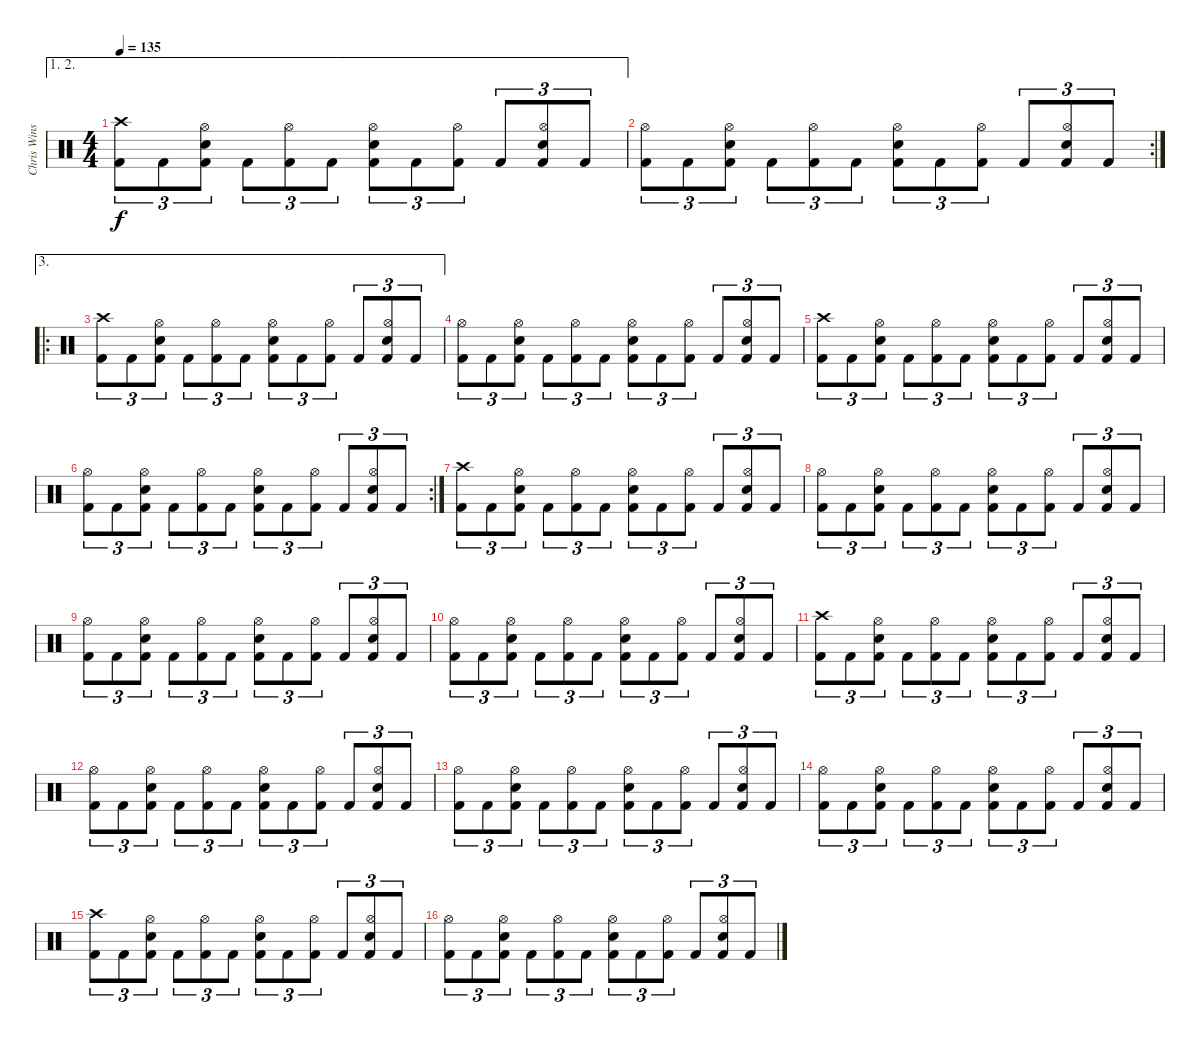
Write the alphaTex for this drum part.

\track ("Chris Winship (Drums)" "Chris Wins") {instrument percussion}
\staff {score}
\articulation defaults
\ae (1 2)
\ts (4 4)
\tempo 135
\clef neutral
\ks c
("Crash high (hit)" "Kick (hit) 2").8{tu (3 2) dy f} "Kick (hit) 2".8{tu (3 2)} ("Hi-Hat (open)" "Electric Snare (hit)" "Kick (hit) 2").8{tu (3 2)} "Kick (hit) 2".8{tu (3 2)} ("Hi-Hat (open)" "Kick (hit) 2").8{tu (3 2)} "Kick (hit) 2".8{tu (3 2)} ("Hi-Hat (open)" "Electric Snare (hit)" "Kick (hit) 2").8{tu (3 2)} "Kick (hit) 2".8{tu (3 2)} ("Hi-Hat (open)" "Kick (hit) 2").8{tu (3 2)} "Kick (hit) 2".8{tu (3 2)} ("Hi-Hat (open)" "Electric Snare (hit)" "Kick (hit) 2").8{tu (3 2)} "Kick (hit) 2".8{tu (3 2)} |
\rc 2
("Hi-Hat (open)" "Kick (hit) 2").8{tu (3 2)} "Kick (hit) 2".8{tu (3 2)} ("Hi-Hat (open)" "Electric Snare (hit)" "Kick (hit) 2").8{tu (3 2)} "Kick (hit) 2".8{tu (3 2)} ("Hi-Hat (open)" "Kick (hit) 2").8{tu (3 2)} "Kick (hit) 2".8{tu (3 2)} ("Hi-Hat (open)" "Electric Snare (hit)" "Kick (hit) 2").8{tu (3 2)} "Kick (hit) 2".8{tu (3 2)} ("Hi-Hat (open)" "Kick (hit) 2").8{tu (3 2)} "Kick (hit) 2".8{tu (3 2)} ("Hi-Hat (open)" "Electric Snare (hit)" "Kick (hit) 2").8{tu (3 2)} "Kick (hit) 2".8{tu (3 2)} |
\ae 3
\ro
("Crash high (hit)" "Kick (hit) 2").8{tu (3 2)} "Kick (hit) 2".8{tu (3 2)} ("Hi-Hat (open)" "Electric Snare (hit)" "Kick (hit) 2").8{tu (3 2)} "Kick (hit) 2".8{tu (3 2)} ("Hi-Hat (open)" "Kick (hit) 2").8{tu (3 2)} "Kick (hit) 2".8{tu (3 2)} ("Hi-Hat (open)" "Electric Snare (hit)" "Kick (hit) 2").8{tu (3 2)} "Kick (hit) 2".8{tu (3 2)} ("Hi-Hat (open)" "Kick (hit) 2").8{tu (3 2)} "Kick (hit) 2".8{tu (3 2)} ("Hi-Hat (open)" "Electric Snare (hit)" "Kick (hit) 2").8{tu (3 2)} "Kick (hit) 2".8{tu (3 2)} |
("Hi-Hat (open)" "Kick (hit) 2").8{tu (3 2)} "Kick (hit) 2".8{tu (3 2)} ("Hi-Hat (open)" "Electric Snare (hit)" "Kick (hit) 2").8{tu (3 2)} "Kick (hit) 2".8{tu (3 2)} ("Hi-Hat (open)" "Kick (hit) 2").8{tu (3 2)} "Kick (hit) 2".8{tu (3 2)} ("Hi-Hat (open)" "Electric Snare (hit)" "Kick (hit) 2").8{tu (3 2)} "Kick (hit) 2".8{tu (3 2)} ("Hi-Hat (open)" "Kick (hit) 2").8{tu (3 2)} "Kick (hit) 2".8{tu (3 2)} ("Hi-Hat (open)" "Electric Snare (hit)" "Kick (hit) 2").8{tu (3 2)} "Kick (hit) 2".8{tu (3 2)} |
("Crash high (hit)" "Kick (hit) 2").8{tu (3 2)} "Kick (hit) 2".8{tu (3 2)} ("Hi-Hat (open)" "Electric Snare (hit)" "Kick (hit) 2").8{tu (3 2)} "Kick (hit) 2".8{tu (3 2)} ("Hi-Hat (open)" "Kick (hit) 2").8{tu (3 2)} "Kick (hit) 2".8{tu (3 2)} ("Hi-Hat (open)" "Electric Snare (hit)" "Kick (hit) 2").8{tu (3 2)} "Kick (hit) 2".8{tu (3 2)} ("Hi-Hat (open)" "Kick (hit) 2").8{tu (3 2)} "Kick (hit) 2".8{tu (3 2)} ("Hi-Hat (open)" "Electric Snare (hit)" "Kick (hit) 2").8{tu (3 2)} "Kick (hit) 2".8{tu (3 2)} |
\rc 2
("Hi-Hat (open)" "Kick (hit) 2").8{tu (3 2)} "Kick (hit) 2".8{tu (3 2)} ("Hi-Hat (open)" "Electric Snare (hit)" "Kick (hit) 2").8{tu (3 2)} "Kick (hit) 2".8{tu (3 2)} ("Hi-Hat (open)" "Kick (hit) 2").8{tu (3 2)} "Kick (hit) 2".8{tu (3 2)} ("Hi-Hat (open)" "Electric Snare (hit)" "Kick (hit) 2").8{tu (3 2)} "Kick (hit) 2".8{tu (3 2)} ("Hi-Hat (open)" "Kick (hit) 2").8{tu (3 2)} "Kick (hit) 2".8{tu (3 2)} ("Hi-Hat (open)" "Electric Snare (hit)" "Kick (hit) 2").8{tu (3 2)} "Kick (hit) 2".8{tu (3 2)} |
("Crash high (hit)" "Kick (hit) 2").8{tu (3 2)} "Kick (hit) 2".8{tu (3 2)} ("Hi-Hat (open)" "Electric Snare (hit)" "Kick (hit) 2").8{tu (3 2)} "Kick (hit) 2".8{tu (3 2)} ("Hi-Hat (open)" "Kick (hit) 2").8{tu (3 2)} "Kick (hit) 2".8{tu (3 2)} ("Hi-Hat (open)" "Electric Snare (hit)" "Kick (hit) 2").8{tu (3 2)} "Kick (hit) 2".8{tu (3 2)} ("Hi-Hat (open)" "Kick (hit) 2").8{tu (3 2)} "Kick (hit) 2".8{tu (3 2)} ("Hi-Hat (open)" "Electric Snare (hit)" "Kick (hit) 2").8{tu (3 2)} "Kick (hit) 2".8{tu (3 2)} |
("Hi-Hat (open)" "Kick (hit) 2").8{tu (3 2)} "Kick (hit) 2".8{tu (3 2)} ("Hi-Hat (open)" "Electric Snare (hit)" "Kick (hit) 2").8{tu (3 2)} "Kick (hit) 2".8{tu (3 2)} ("Hi-Hat (open)" "Kick (hit) 2").8{tu (3 2)} "Kick (hit) 2".8{tu (3 2)} ("Hi-Hat (open)" "Electric Snare (hit)" "Kick (hit) 2").8{tu (3 2)} "Kick (hit) 2".8{tu (3 2)} ("Hi-Hat (open)" "Kick (hit) 2").8{tu (3 2)} "Kick (hit) 2".8{tu (3 2)} ("Hi-Hat (open)" "Electric Snare (hit)" "Kick (hit) 2").8{tu (3 2)} "Kick (hit) 2".8{tu (3 2)} |
("Hi-Hat (open)" "Kick (hit) 2").8{tu (3 2)} "Kick (hit) 2".8{tu (3 2)} ("Hi-Hat (open)" "Electric Snare (hit)" "Kick (hit) 2").8{tu (3 2)} "Kick (hit) 2".8{tu (3 2)} ("Hi-Hat (open)" "Kick (hit) 2").8{tu (3 2)} "Kick (hit) 2".8{tu (3 2)} ("Hi-Hat (open)" "Electric Snare (hit)" "Kick (hit) 2").8{tu (3 2)} "Kick (hit) 2".8{tu (3 2)} ("Hi-Hat (open)" "Kick (hit) 2").8{tu (3 2)} "Kick (hit) 2".8{tu (3 2)} ("Hi-Hat (open)" "Electric Snare (hit)" "Kick (hit) 2").8{tu (3 2)} "Kick (hit) 2".8{tu (3 2)} |
("Hi-Hat (open)" "Kick (hit) 2").8{tu (3 2)} "Kick (hit) 2".8{tu (3 2)} ("Hi-Hat (open)" "Electric Snare (hit)" "Kick (hit) 2").8{tu (3 2)} "Kick (hit) 2".8{tu (3 2)} ("Hi-Hat (open)" "Kick (hit) 2").8{tu (3 2)} "Kick (hit) 2".8{tu (3 2)} ("Hi-Hat (open)" "Electric Snare (hit)" "Kick (hit) 2").8{tu (3 2)} "Kick (hit) 2".8{tu (3 2)} ("Hi-Hat (open)" "Kick (hit) 2").8{tu (3 2)} "Kick (hit) 2".8{tu (3 2)} ("Hi-Hat (open)" "Electric Snare (hit)" "Kick (hit) 2").8{tu (3 2)} "Kick (hit) 2".8{tu (3 2)} |
("Crash high (hit)" "Kick (hit) 2").8{tu (3 2)} "Kick (hit) 2".8{tu (3 2)} ("Hi-Hat (open)" "Electric Snare (hit)" "Kick (hit) 2").8{tu (3 2)} "Kick (hit) 2".8{tu (3 2)} ("Hi-Hat (open)" "Kick (hit) 2").8{tu (3 2)} "Kick (hit) 2".8{tu (3 2)} ("Hi-Hat (open)" "Electric Snare (hit)" "Kick (hit) 2").8{tu (3 2)} "Kick (hit) 2".8{tu (3 2)} ("Hi-Hat (open)" "Kick (hit) 2").8{tu (3 2)} "Kick (hit) 2".8{tu (3 2)} ("Hi-Hat (open)" "Electric Snare (hit)" "Kick (hit) 2").8{tu (3 2)} "Kick (hit) 2".8{tu (3 2)} |
("Hi-Hat (open)" "Kick (hit) 2").8{tu (3 2)} "Kick (hit) 2".8{tu (3 2)} ("Hi-Hat (open)" "Electric Snare (hit)" "Kick (hit) 2").8{tu (3 2)} "Kick (hit) 2".8{tu (3 2)} ("Hi-Hat (open)" "Kick (hit) 2").8{tu (3 2)} "Kick (hit) 2".8{tu (3 2)} ("Hi-Hat (open)" "Electric Snare (hit)" "Kick (hit) 2").8{tu (3 2)} "Kick (hit) 2".8{tu (3 2)} ("Hi-Hat (open)" "Kick (hit) 2").8{tu (3 2)} "Kick (hit) 2".8{tu (3 2)} ("Hi-Hat (open)" "Electric Snare (hit)" "Kick (hit) 2").8{tu (3 2)} "Kick (hit) 2".8{tu (3 2)} |
("Hi-Hat (open)" "Kick (hit) 2").8{tu (3 2)} "Kick (hit) 2".8{tu (3 2)} ("Hi-Hat (open)" "Electric Snare (hit)" "Kick (hit) 2").8{tu (3 2)} "Kick (hit) 2".8{tu (3 2)} ("Hi-Hat (open)" "Kick (hit) 2").8{tu (3 2)} "Kick (hit) 2".8{tu (3 2)} ("Hi-Hat (open)" "Electric Snare (hit)" "Kick (hit) 2").8{tu (3 2)} "Kick (hit) 2".8{tu (3 2)} ("Hi-Hat (open)" "Kick (hit) 2").8{tu (3 2)} "Kick (hit) 2".8{tu (3 2)} ("Hi-Hat (open)" "Electric Snare (hit)" "Kick (hit) 2").8{tu (3 2)} "Kick (hit) 2".8{tu (3 2)} |
("Hi-Hat (open)" "Kick (hit) 2").8{tu (3 2)} "Kick (hit) 2".8{tu (3 2)} ("Hi-Hat (open)" "Electric Snare (hit)" "Kick (hit) 2").8{tu (3 2)} "Kick (hit) 2".8{tu (3 2)} ("Hi-Hat (open)" "Kick (hit) 2").8{tu (3 2)} "Kick (hit) 2".8{tu (3 2)} ("Hi-Hat (open)" "Electric Snare (hit)" "Kick (hit) 2").8{tu (3 2)} "Kick (hit) 2".8{tu (3 2)} ("Hi-Hat (open)" "Kick (hit) 2").8{tu (3 2)} "Kick (hit) 2".8{tu (3 2)} ("Hi-Hat (open)" "Electric Snare (hit)" "Kick (hit) 2").8{tu (3 2)} "Kick (hit) 2".8{tu (3 2)} |
("Crash high (hit)" "Kick (hit) 2").8{tu (3 2)} "Kick (hit) 2".8{tu (3 2)} ("Hi-Hat (open)" "Electric Snare (hit)" "Kick (hit) 2").8{tu (3 2)} "Kick (hit) 2".8{tu (3 2)} ("Hi-Hat (open)" "Kick (hit) 2").8{tu (3 2)} "Kick (hit) 2".8{tu (3 2)} ("Hi-Hat (open)" "Electric Snare (hit)" "Kick (hit) 2").8{tu (3 2)} "Kick (hit) 2".8{tu (3 2)} ("Hi-Hat (open)" "Kick (hit) 2").8{tu (3 2)} "Kick (hit) 2".8{tu (3 2)} ("Hi-Hat (open)" "Electric Snare (hit)" "Kick (hit) 2").8{tu (3 2)} "Kick (hit) 2".8{tu (3 2)} |
("Hi-Hat (open)" "Kick (hit) 2").8{tu (3 2)} "Kick (hit) 2".8{tu (3 2)} ("Hi-Hat (open)" "Electric Snare (hit)" "Kick (hit) 2").8{tu (3 2)} "Kick (hit) 2".8{tu (3 2)} ("Hi-Hat (open)" "Kick (hit) 2").8{tu (3 2)} "Kick (hit) 2".8{tu (3 2)} ("Hi-Hat (open)" "Electric Snare (hit)" "Kick (hit) 2").8{tu (3 2)} "Kick (hit) 2".8{tu (3 2)} ("Hi-Hat (open)" "Kick (hit) 2").8{tu (3 2)} "Kick (hit) 2".8{tu (3 2)} ("Hi-Hat (open)" "Electric Snare (hit)" "Kick (hit) 2").8{tu (3 2)} "Kick (hit) 2".8{tu (3 2)}
